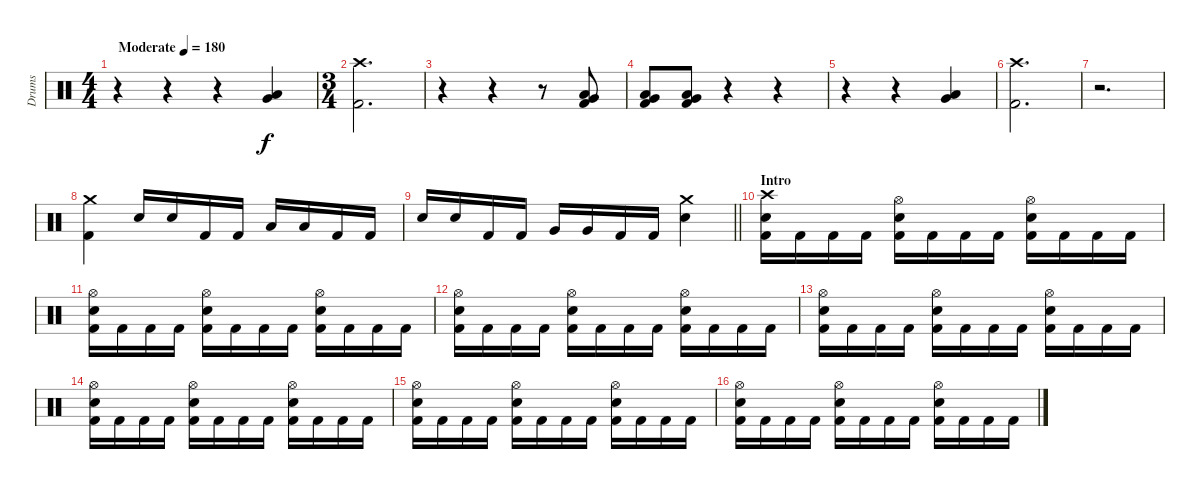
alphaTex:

\track ("Drums" "Drums") {instrument percussion}
\staff {score}
\articulation defaults
\ts (4 4)
\tempo (180 "Moderate")
\clef neutral
\ks c
r.4{dy f} r.4 r.4 ("Very Low Tom (hit)" "Low Floor Tom (hit)").4 |
\ts (3 4)
("Crash high (hit)" "Kick (hit) 2").2{d} |
r.4 r.4 r.8 ("Low Tom (hit)" "Very Low Tom (hit)" "Kick (hit) 2").8 |
("Low Tom (hit)" "Very Low Tom (hit)" "Kick (hit) 2").8 ("Low Tom (hit)" "Very Low Tom (hit)" "Kick (hit) 2").8 r.4 r.4 |
r.4 r.4 ("Very Low Tom (hit)" "Low Floor Tom (hit)").4 |
("Crash high (hit)" "Kick (hit) 2").2{d} |
r.2{d} |
("Crash medium (hit)" "Kick (hit) 2").4 "Electric Snare (hit)".16 "Electric Snare (hit)".16 "Kick (hit) 2".16 "Kick (hit) 2".16 "Low Tom (hit)".16 "Low Tom (hit)".16 "Kick (hit) 2".16 "Kick (hit) 2".16 |
\barLineRight lightlight "Electric Snare (hit)".16 "Electric Snare (hit)".16 "Kick (hit) 2".16 "Kick (hit) 2".16 "Very Low Tom (hit)".16 "Very Low Tom (hit)".16 "Kick (hit) 2".16 "Kick (hit) 2".16
("Crash medium (hit)" "Electric Snare (hit)").4 |
\section ("" "Intro")
("Crash high (hit)" "Electric Snare (hit)" "Kick (hit) 2").16 "Kick (hit) 2".16 "Kick (hit) 2".16 "Kick (hit) 2".16 ("Hi-Hat (open)" "Electric Snare (hit)" "Kick (hit) 2").16 "Kick (hit) 2".16 "Kick (hit) 2".16 "Kick (hit) 2".16 ("Hi-Hat (open)" "Electric Snare (hit)" "Kick (hit) 2").16 "Kick (hit) 2".16 "Kick (hit) 2".16 "Kick (hit) 2".16 |
("Hi-Hat (open)" "Electric Snare (hit)" "Kick (hit) 2").16 "Kick (hit) 2".16 "Kick (hit) 2".16 "Kick (hit) 2".16 ("Hi-Hat (open)" "Electric Snare (hit)" "Kick (hit) 2").16 "Kick (hit) 2".16 "Kick (hit) 2".16 "Kick (hit) 2".16 ("Hi-Hat (open)" "Electric Snare (hit)" "Kick (hit) 2").16 "Kick (hit) 2".16 "Kick (hit) 2".16 "Kick (hit) 2".16 |
("Hi-Hat (open)" "Electric Snare (hit)" "Kick (hit) 2").16 "Kick (hit) 2".16 "Kick (hit) 2".16 "Kick (hit) 2".16 ("Hi-Hat (open)" "Electric Snare (hit)" "Kick (hit) 2").16 "Kick (hit) 2".16 "Kick (hit) 2".16 "Kick (hit) 2".16 ("Hi-Hat (open)" "Electric Snare (hit)" "Kick (hit) 2").16 "Kick (hit) 2".16 "Kick (hit) 2".16 "Kick (hit) 2".16 |
("Hi-Hat (open)" "Electric Snare (hit)" "Kick (hit) 2").16 "Kick (hit) 2".16 "Kick (hit) 2".16 "Kick (hit) 2".16 ("Hi-Hat (open)" "Electric Snare (hit)" "Kick (hit) 2").16 "Kick (hit) 2".16 "Kick (hit) 2".16 "Kick (hit) 2".16 ("Hi-Hat (open)" "Electric Snare (hit)" "Kick (hit) 2").16 "Kick (hit) 2".16 "Kick (hit) 2".16 "Kick (hit) 2".16 |
("Hi-Hat (open)" "Electric Snare (hit)" "Kick (hit) 2").16 "Kick (hit) 2".16 "Kick (hit) 2".16 "Kick (hit) 2".16 ("Hi-Hat (open)" "Electric Snare (hit)" "Kick (hit) 2").16 "Kick (hit) 2".16 "Kick (hit) 2".16 "Kick (hit) 2".16 ("Hi-Hat (open)" "Electric Snare (hit)" "Kick (hit) 2").16 "Kick (hit) 2".16 "Kick (hit) 2".16 "Kick (hit) 2".16 |
("Hi-Hat (open)" "Electric Snare (hit)" "Kick (hit) 2").16 "Kick (hit) 2".16 "Kick (hit) 2".16 "Kick (hit) 2".16 ("Hi-Hat (open)" "Electric Snare (hit)" "Kick (hit) 2").16 "Kick (hit) 2".16 "Kick (hit) 2".16 "Kick (hit) 2".16 ("Hi-Hat (open)" "Electric Snare (hit)" "Kick (hit) 2").16 "Kick (hit) 2".16 "Kick (hit) 2".16 "Kick (hit) 2".16 |
("Hi-Hat (open)" "Electric Snare (hit)" "Kick (hit) 2").16 "Kick (hit) 2".16 "Kick (hit) 2".16 "Kick (hit) 2".16 ("Hi-Hat (open)" "Electric Snare (hit)" "Kick (hit) 2").16 "Kick (hit) 2".16 "Kick (hit) 2".16 "Kick (hit) 2".16 ("Hi-Hat (open)" "Electric Snare (hit)" "Kick (hit) 2").16 "Kick (hit) 2".16 "Kick (hit) 2".16 "Kick (hit) 2".16
